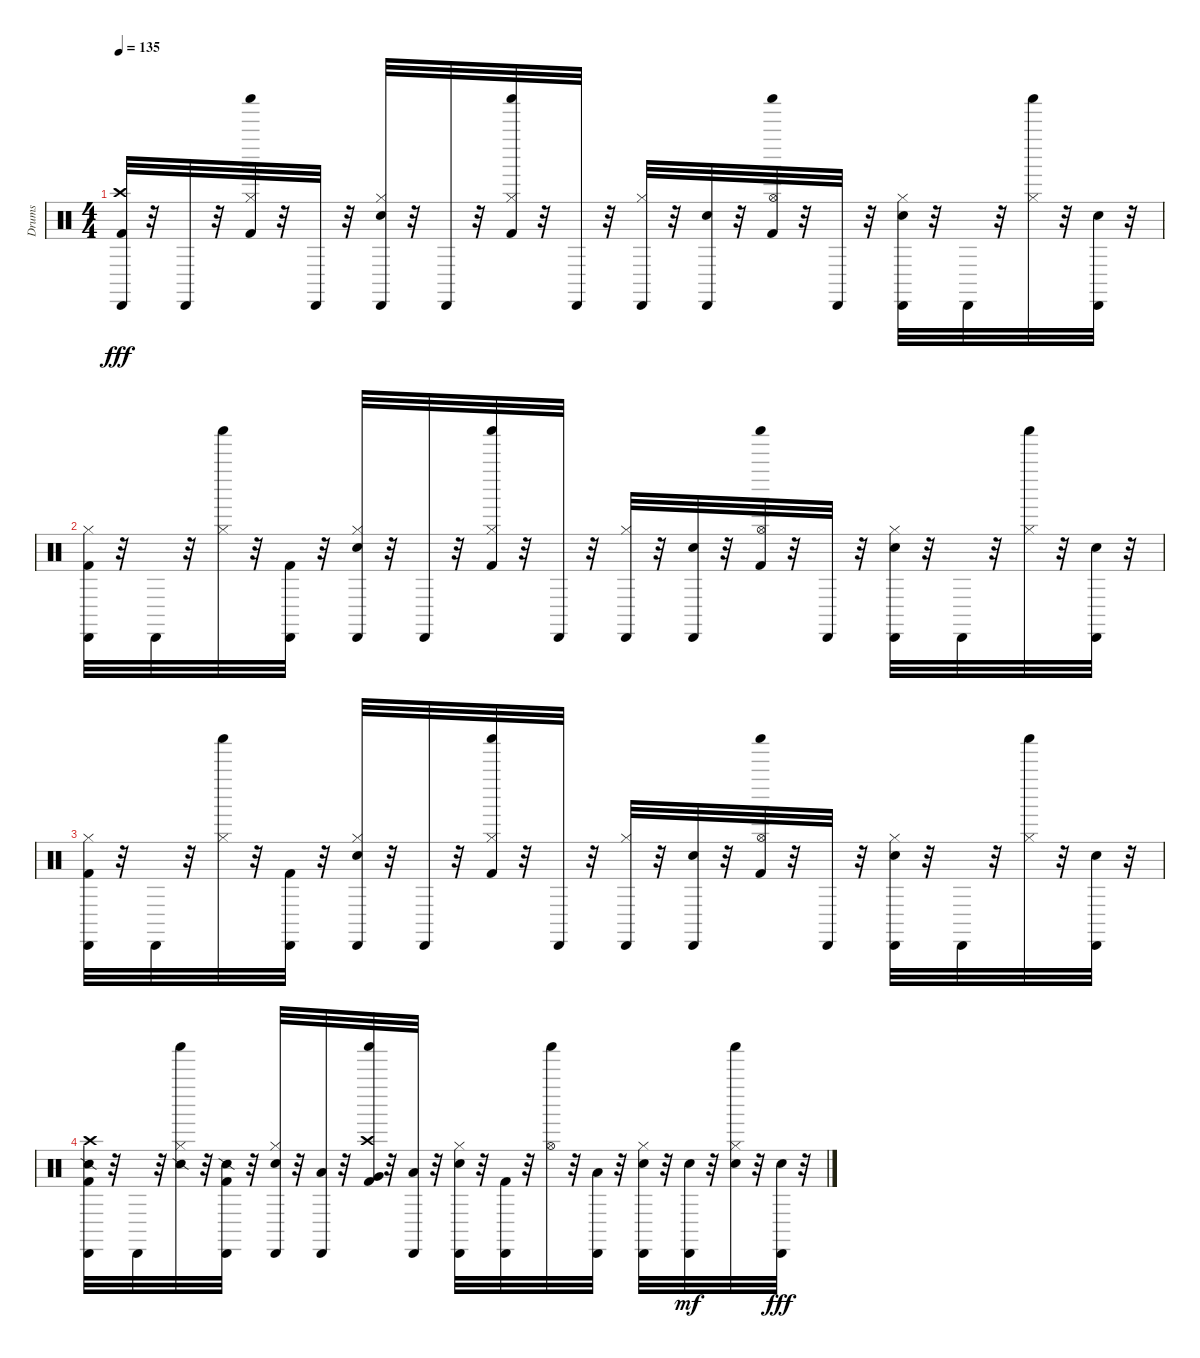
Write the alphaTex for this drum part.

\track ("Drums" "Drums") {instrument percussion}
\staff {score}
\articulation defaults
\ts (4 4)
\tempo 135
\clef neutral
\ks c
("Crash high (hit)" "Kick (hit) 2" "Cabasa (hit)").32{dy fff} r.32 "Cabasa (hit)".32 r.32 ("Shaker (hit)" "Hi-Hat (closed)" "Kick (hit) 2").32 r.32 "Cabasa (hit)".32 r.32 ("Snare (hit) 2" "Hi-Hat (closed)" "Cabasa (hit)").32 r.32 "Cabasa (hit)".32 r.32 ("Kick (hit) 2" "Shaker (hit)" "Hi-Hat (closed)").32 r.32 "Cabasa (hit)".32 r.32 ("Hi-Hat (closed)" "Cabasa (hit)").32 r.32 ("Snare (hit) 2" "Cabasa (hit)").32 r.32 ("Kick (hit) 2" "Shaker (hit)" "Hi-Hat (open)").32 r.32 "Cabasa (hit)".32 r.32 ("Snare (hit) 2" "Hi-Hat (closed)" "Cabasa (hit)").32 r.32 "Cabasa (hit)".32 r.32 ("Shaker (hit)" "Hi-Hat (closed)").32 r.32 ("Snare (hit) 2" "Cabasa (hit)").32 r.32 |
("Hi-Hat (closed)" "Kick (hit) 2" "Cabasa (hit)").32 r.32 "Cabasa (hit)".32 r.32 ("Shaker (hit)" "Hi-Hat (closed)").32 r.32 ("Kick (hit) 2" "Cabasa (hit)").32 r.32 ("Snare (hit) 2" "Hi-Hat (closed)" "Cabasa (hit)").32 r.32 "Cabasa (hit)".32 r.32 ("Kick (hit) 2" "Shaker (hit)" "Hi-Hat (closed)").32 r.32 "Cabasa (hit)".32 r.32 ("Hi-Hat (closed)" "Cabasa (hit)").32 r.32 ("Snare (hit) 2" "Cabasa (hit)").32 r.32 ("Kick (hit) 2" "Shaker (hit)" "Hi-Hat (open)").32 r.32 "Cabasa (hit)".32 r.32 ("Snare (hit) 2" "Hi-Hat (closed)" "Cabasa (hit)").32 r.32 "Cabasa (hit)".32 r.32 ("Shaker (hit)" "Hi-Hat (closed)").32 r.32 ("Snare (hit) 2" "Cabasa (hit)").32 r.32 |
("Hi-Hat (closed)" "Kick (hit) 2" "Cabasa (hit)").32 r.32 "Cabasa (hit)".32 r.32 ("Shaker (hit)" "Hi-Hat (closed)").32 r.32 ("Kick (hit) 2" "Cabasa (hit)").32 r.32 ("Snare (hit) 2" "Hi-Hat (closed)" "Cabasa (hit)").32 r.32 "Cabasa (hit)".32 r.32 ("Kick (hit) 2" "Shaker (hit)" "Hi-Hat (closed)").32 r.32 "Cabasa (hit)".32 r.32 ("Hi-Hat (closed)" "Cabasa (hit)").32 r.32 ("Snare (hit) 2" "Cabasa (hit)").32 r.32 ("Kick (hit) 2" "Shaker (hit)" "Hi-Hat (open)").32 r.32 "Cabasa (hit)".32 r.32 ("Snare (hit) 2" "Hi-Hat (closed)" "Cabasa (hit)").32 r.32 "Cabasa (hit)".32 r.32 ("Shaker (hit)" "Hi-Hat (closed)").32 r.32 ("Snare (hit) 2" "Cabasa (hit)").32 r.32 |
("Crash high (hit)" "Kick (hit) 2" "Cabasa (hit)" "Snare (side stick) 2").32 r.32 "Cabasa (hit)".32 r.32 ("Shaker (hit)" "Hi-Hat (closed)" "Snare (side stick) 2").32 r.32 ("Kick (hit) 2" "Cabasa (hit)" "Snare (side stick) 2").32 r.32 ("Snare (hit) 2" "Hi-Hat (closed)" "Cabasa (hit)").32 r.32 ("Cabasa (hit)" "Low Tom (hit)").32 r.32 ("Kick (hit) 2" "Shaker (hit)" "Crash high (hit)" "Very Low Tom (hit)").32 r.32 ("Cabasa (hit)" "Low Floor Tom (hit)").32 r.32 ("Hi-Hat (closed)" "Cabasa (hit)" "Snare (hit) 2").32 r.32 ("Cabasa (hit)" "Kick (hit) 2").32 r.32 ("Shaker (hit)" "Hi-Hat (open)").32 r.32 ("Cabasa (hit)" "Low Floor Tom (hit)").32 r.32 ("Snare (hit) 2" "Hi-Hat (closed)" "Cabasa (hit)").32 r.32 ("Cabasa (hit)" "Snare (hit) 2").32{dy mf} r.32 ("Shaker (hit)" "Hi-Hat (closed)" "Snare (hit) 2").32 r.32 ("Snare (hit) 2" "Cabasa (hit)").32{dy fff} r.32
